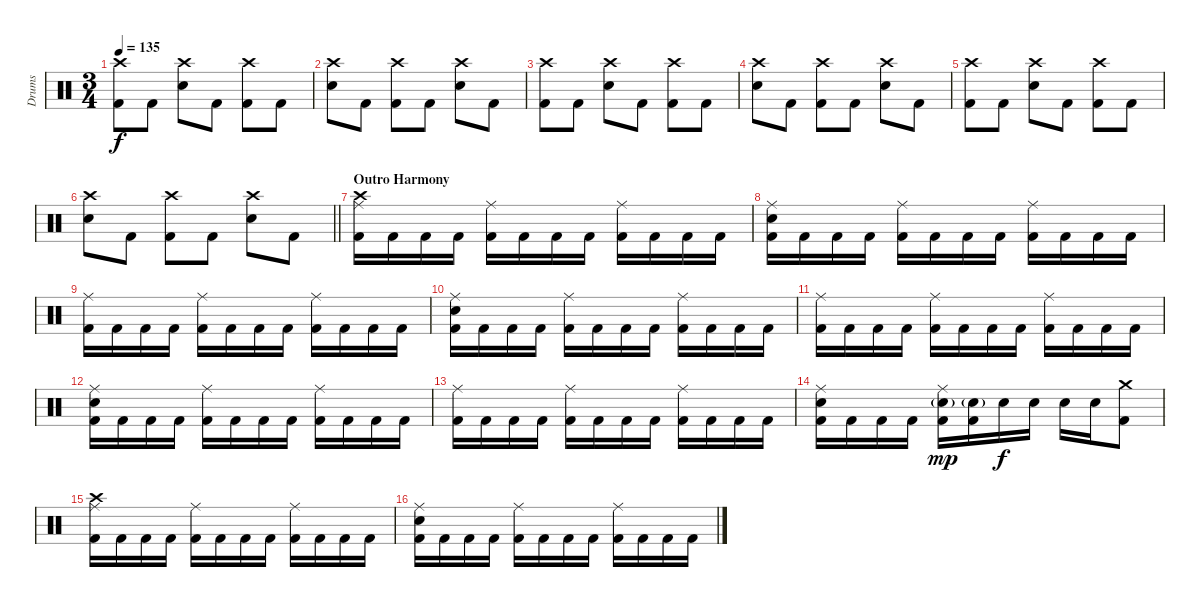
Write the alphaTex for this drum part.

\track ("Drums" "Drums") {instrument percussion}
\staff {score}
\articulation defaults
\ts (3 4)
\tempo 135
\clef neutral
\ks c
("Crash high (hit)" "Kick (hit) 2").8{dy f} "Kick (hit) 2".8 ("Crash high (hit)" "Snare (hit) 2").8 "Kick (hit) 2".8 ("Crash high (hit)" "Kick (hit) 2").8 "Kick (hit) 2".8 |
("Crash high (hit)" "Snare (hit) 2").8 "Kick (hit) 2".8 ("Crash high (hit)" "Kick (hit) 2").8 "Kick (hit) 2".8 ("Crash high (hit)" "Snare (hit) 2").8 "Kick (hit) 2".8 |
("Crash high (hit)" "Kick (hit) 2").8 "Kick (hit) 2".8 ("Crash high (hit)" "Snare (hit) 2").8 "Kick (hit) 2".8 ("Crash high (hit)" "Kick (hit) 2").8 "Kick (hit) 2".8 |
("Crash high (hit)" "Snare (hit) 2").8 "Kick (hit) 2".8 ("Crash high (hit)" "Kick (hit) 2").8 "Kick (hit) 2".8 ("Crash high (hit)" "Snare (hit) 2").8 "Kick (hit) 2".8 |
("Crash high (hit)" "Kick (hit) 2").8 "Kick (hit) 2".8 ("Crash high (hit)" "Snare (hit) 2").8 "Kick (hit) 2".8 ("Crash high (hit)" "Kick (hit) 2").8 "Kick (hit) 2".8 |
\barLineRight lightlight
("Crash high (hit)" "Snare (hit) 2").8 "Kick (hit) 2".8 ("Crash high (hit)" "Kick (hit) 2").8 "Kick (hit) 2".8 ("Crash high (hit)" "Snare (hit) 2").8 "Kick (hit) 2".8 |
\section ("" "Outro Harmony")
("Ride (middle)" "Crash high (hit)" "Kick (hit) 2").16 "Kick (hit) 2".16 "Kick (hit) 2".16 "Kick (hit) 2".16 ("Ride (middle)" "Kick (hit) 2").16 "Kick (hit) 2".16 "Kick (hit) 2".16 "Kick (hit) 2".16 ("Ride (middle)" "Kick (hit) 2").16 "Kick (hit) 2".16 "Kick (hit) 2".16 "Kick (hit) 2".16 |
("Ride (middle)" "Snare (hit) 2" "Kick (hit) 2").16 "Kick (hit) 2".16 "Kick (hit) 2".16 "Kick (hit) 2".16 ("Ride (middle)" "Kick (hit) 2").16 "Kick (hit) 2".16 "Kick (hit) 2".16 "Kick (hit) 2".16 ("Ride (middle)" "Kick (hit) 2").16 "Kick (hit) 2".16 "Kick (hit) 2".16 "Kick (hit) 2".16 |
("Ride (middle)" "Kick (hit) 2").16 "Kick (hit) 2".16 "Kick (hit) 2".16 "Kick (hit) 2".16 ("Ride (middle)" "Kick (hit) 2").16 "Kick (hit) 2".16 "Kick (hit) 2".16 "Kick (hit) 2".16 ("Ride (middle)" "Kick (hit) 2").16 "Kick (hit) 2".16 "Kick (hit) 2".16 "Kick (hit) 2".16 |
("Ride (middle)" "Snare (hit) 2" "Kick (hit) 2").16 "Kick (hit) 2".16 "Kick (hit) 2".16 "Kick (hit) 2".16 ("Ride (middle)" "Kick (hit) 2").16 "Kick (hit) 2".16 "Kick (hit) 2".16 "Kick (hit) 2".16 ("Ride (middle)" "Kick (hit) 2").16 "Kick (hit) 2".16 "Kick (hit) 2".16 "Kick (hit) 2".16 |
("Ride (middle)" "Kick (hit) 2").16 "Kick (hit) 2".16 "Kick (hit) 2".16 "Kick (hit) 2".16 ("Ride (middle)" "Kick (hit) 2").16 "Kick (hit) 2".16 "Kick (hit) 2".16 "Kick (hit) 2".16 ("Ride (middle)" "Kick (hit) 2").16 "Kick (hit) 2".16 "Kick (hit) 2".16 "Kick (hit) 2".16 |
("Ride (middle)" "Snare (hit) 2" "Kick (hit) 2").16 "Kick (hit) 2".16 "Kick (hit) 2".16 "Kick (hit) 2".16 ("Ride (middle)" "Kick (hit) 2").16 "Kick (hit) 2".16 "Kick (hit) 2".16 "Kick (hit) 2".16 ("Ride (middle)" "Kick (hit) 2").16 "Kick (hit) 2".16 "Kick (hit) 2".16 "Kick (hit) 2".16 |
("Ride (middle)" "Kick (hit) 2").16 "Kick (hit) 2".16 "Kick (hit) 2".16 "Kick (hit) 2".16 ("Ride (middle)" "Kick (hit) 2").16 "Kick (hit) 2".16 "Kick (hit) 2".16 "Kick (hit) 2".16 ("Ride (middle)" "Kick (hit) 2").16 "Kick (hit) 2".16 "Kick (hit) 2".16 "Kick (hit) 2".16 |
("Ride (middle)" "Snare (hit) 2" "Kick (hit) 2").16 "Kick (hit) 2".16 "Kick (hit) 2".16 "Kick (hit) 2".16 ("Ride (middle)" "Snare (hit) 2"{g} "Kick (hit) 2").16{dy mp} ("Snare (hit) 2"{g} "Kick (hit) 2").16 "Snare (hit) 2".16{dy f} "Snare (hit) 2".16 "Snare (hit) 2".16 "Snare (hit) 2".16 ("Crash medium (hit)" "Kick (hit) 2").8 |
("Ride (middle)" "Crash high (hit)" "Kick (hit) 2").16 "Kick (hit) 2".16 "Kick (hit) 2".16 "Kick (hit) 2".16 ("Ride (middle)" "Kick (hit) 2").16 "Kick (hit) 2".16 "Kick (hit) 2".16 "Kick (hit) 2".16 ("Ride (middle)" "Kick (hit) 2").16 "Kick (hit) 2".16 "Kick (hit) 2".16 "Kick (hit) 2".16 |
("Ride (middle)" "Snare (hit) 2" "Kick (hit) 2").16 "Kick (hit) 2".16 "Kick (hit) 2".16 "Kick (hit) 2".16 ("Ride (middle)" "Kick (hit) 2").16 "Kick (hit) 2".16 "Kick (hit) 2".16 "Kick (hit) 2".16 ("Ride (middle)" "Kick (hit) 2").16 "Kick (hit) 2".16 "Kick (hit) 2".16 "Kick (hit) 2".16
